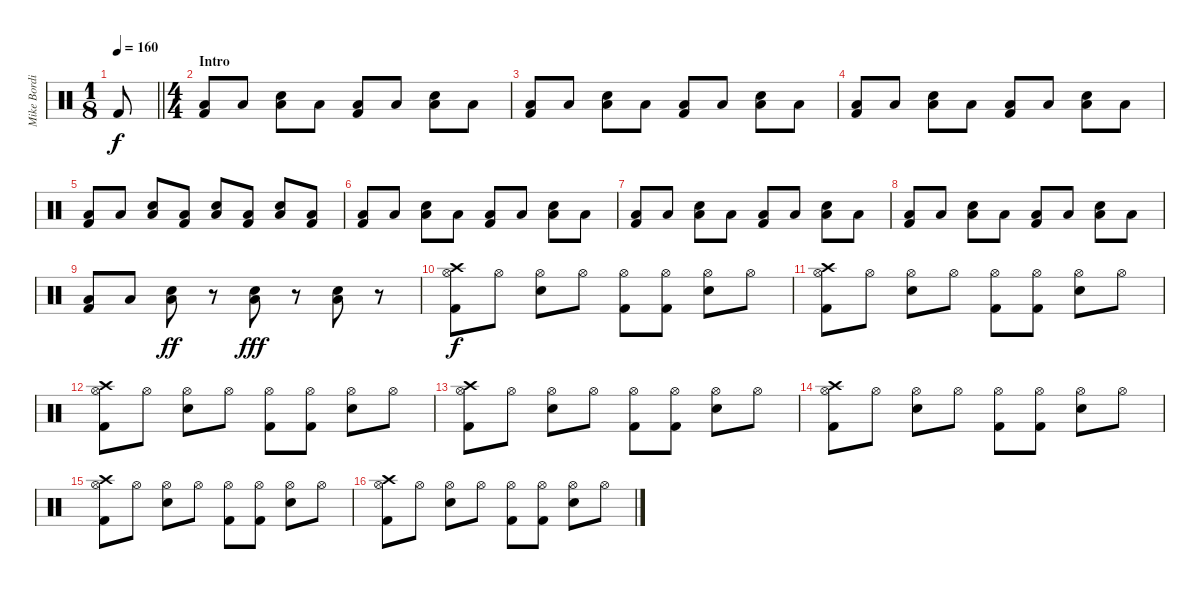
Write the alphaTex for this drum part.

\track ("Mike Bordin - Drums" "Mike Bordi") {instrument percussion}
\staff {score}
\articulation defaults
\ts (1 8)
\tempo 160
\clef neutral
\barLineRight lightlight
\ks c "Kick (hit) 2".8{dy f}
|
\ts (4 4)
\section ("" "Intro")
("Low Floor Tom (hit)" "Kick (hit) 2").8 "Low Floor Tom (hit)".8 ("Snare (hit) 2" "Low Floor Tom (hit)").8 "Low Floor Tom (hit)".8 ("Low Floor Tom (hit)" "Kick (hit) 2").8 "Low Floor Tom (hit)".8 ("Snare (hit) 2" "Low Floor Tom (hit)").8 "Low Floor Tom (hit)".8 |
("Low Floor Tom (hit)" "Kick (hit) 2").8 "Low Floor Tom (hit)".8 ("Snare (hit) 2" "Low Floor Tom (hit)").8 "Low Floor Tom (hit)".8 ("Low Floor Tom (hit)" "Kick (hit) 2").8 "Low Floor Tom (hit)".8 ("Snare (hit) 2" "Low Floor Tom (hit)").8 "Low Floor Tom (hit)".8 |
("Low Floor Tom (hit)" "Kick (hit) 2").8 "Low Floor Tom (hit)".8 ("Snare (hit) 2" "Low Floor Tom (hit)").8 "Low Floor Tom (hit)".8 ("Low Floor Tom (hit)" "Kick (hit) 2").8 "Low Floor Tom (hit)".8 ("Snare (hit) 2" "Low Floor Tom (hit)").8 "Low Floor Tom (hit)".8 |
("Low Floor Tom (hit)" "Kick (hit) 2").8 "Low Floor Tom (hit)".8 ("Snare (hit) 2" "Low Floor Tom (hit)").8 ("Low Floor Tom (hit)" "Kick (hit) 2").8 ("Snare (hit) 2" "Low Floor Tom (hit)").8 ("Low Floor Tom (hit)" "Kick (hit) 2").8 ("Snare (hit) 2" "Low Floor Tom (hit)").8 ("Low Floor Tom (hit)" "Kick (hit) 2").8 |
("Low Floor Tom (hit)" "Kick (hit) 2").8 "Low Floor Tom (hit)".8 ("Snare (hit) 2" "Low Floor Tom (hit)").8 "Low Floor Tom (hit)".8 ("Low Floor Tom (hit)" "Kick (hit) 2").8 "Low Floor Tom (hit)".8 ("Snare (hit) 2" "Low Floor Tom (hit)").8 "Low Floor Tom (hit)".8 |
("Low Floor Tom (hit)" "Kick (hit) 2").8 "Low Floor Tom (hit)".8 ("Snare (hit) 2" "Low Floor Tom (hit)").8 "Low Floor Tom (hit)".8 ("Low Floor Tom (hit)" "Kick (hit) 2").8 "Low Floor Tom (hit)".8 ("Snare (hit) 2" "Low Floor Tom (hit)").8 "Low Floor Tom (hit)".8 |
("Low Floor Tom (hit)" "Kick (hit) 2").8 "Low Floor Tom (hit)".8 ("Snare (hit) 2" "Low Floor Tom (hit)").8 "Low Floor Tom (hit)".8 ("Low Floor Tom (hit)" "Kick (hit) 2").8 "Low Floor Tom (hit)".8 ("Snare (hit) 2" "Low Floor Tom (hit)").8 "Low Floor Tom (hit)".8 |
("Low Floor Tom (hit)" "Kick (hit) 2").8 "Low Floor Tom (hit)".8 ("Snare (hit) 2" "Low Floor Tom (hit)").8{dy ff} r.8 ("Snare (hit) 2" "Low Floor Tom (hit)").8{dy fff} r.8 ("Snare (hit) 2" "Low Floor Tom (hit)").8 r.8 |
("Crash high (hit)" "Hi-Hat (open)" "Kick (hit) 2").8{dy f} "Hi-Hat (open)".8 ("Hi-Hat (open)" "Snare (hit) 2").8 "Hi-Hat (open)".8 ("Hi-Hat (open)" "Kick (hit) 2").8 ("Hi-Hat (open)" "Kick (hit) 2").8 ("Hi-Hat (open)" "Snare (hit) 2").8 "Hi-Hat (open)".8 |
("Crash high (hit)" "Hi-Hat (open)" "Kick (hit) 2").8 "Hi-Hat (open)".8 ("Hi-Hat (open)" "Snare (hit) 2").8 "Hi-Hat (open)".8 ("Hi-Hat (open)" "Kick (hit) 2").8 ("Hi-Hat (open)" "Kick (hit) 2").8 ("Hi-Hat (open)" "Snare (hit) 2").8 "Hi-Hat (open)".8 |
("Crash high (hit)" "Hi-Hat (open)" "Kick (hit) 2").8 "Hi-Hat (open)".8 ("Hi-Hat (open)" "Snare (hit) 2").8 "Hi-Hat (open)".8 ("Hi-Hat (open)" "Kick (hit) 2").8 ("Hi-Hat (open)" "Kick (hit) 2").8 ("Hi-Hat (open)" "Snare (hit) 2").8 "Hi-Hat (open)".8 |
("Crash high (hit)" "Hi-Hat (open)" "Kick (hit) 2").8 "Hi-Hat (open)".8 ("Hi-Hat (open)" "Snare (hit) 2").8 "Hi-Hat (open)".8 ("Hi-Hat (open)" "Kick (hit) 2").8 ("Hi-Hat (open)" "Kick (hit) 2").8 ("Hi-Hat (open)" "Snare (hit) 2").8 "Hi-Hat (open)".8 |
("Crash high (hit)" "Hi-Hat (open)" "Kick (hit) 2").8 "Hi-Hat (open)".8 ("Hi-Hat (open)" "Snare (hit) 2").8 "Hi-Hat (open)".8 ("Hi-Hat (open)" "Kick (hit) 2").8 ("Hi-Hat (open)" "Kick (hit) 2").8 ("Hi-Hat (open)" "Snare (hit) 2").8 "Hi-Hat (open)".8 |
("Crash high (hit)" "Hi-Hat (open)" "Kick (hit) 2").8 "Hi-Hat (open)".8 ("Hi-Hat (open)" "Snare (hit) 2").8 "Hi-Hat (open)".8 ("Hi-Hat (open)" "Kick (hit) 2").8 ("Hi-Hat (open)" "Kick (hit) 2").8 ("Hi-Hat (open)" "Snare (hit) 2").8 "Hi-Hat (open)".8 |
("Crash high (hit)" "Hi-Hat (open)" "Kick (hit) 2").8 "Hi-Hat (open)".8 ("Hi-Hat (open)" "Snare (hit) 2").8 "Hi-Hat (open)".8 ("Hi-Hat (open)" "Kick (hit) 2").8 ("Hi-Hat (open)" "Kick (hit) 2").8 ("Hi-Hat (open)" "Snare (hit) 2").8 "Hi-Hat (open)".8
